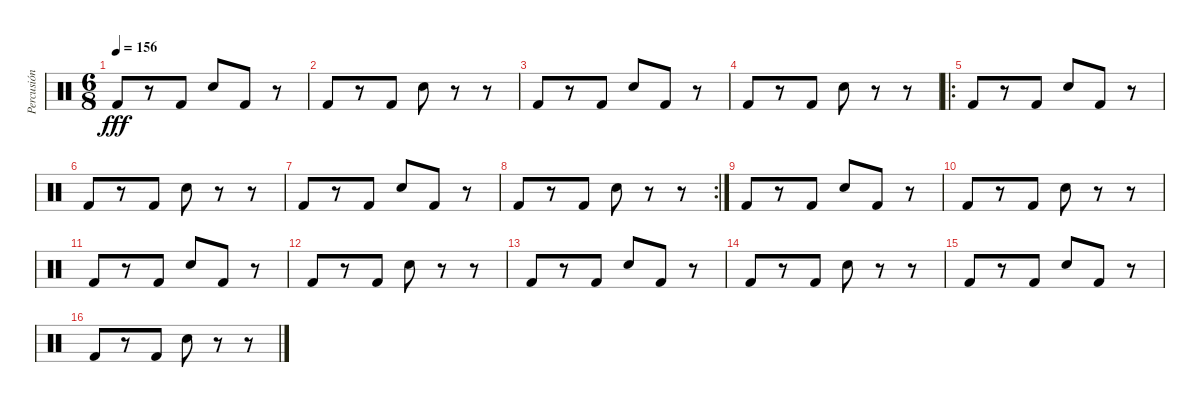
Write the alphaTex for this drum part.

\track ("Percusión" "Percusión") {instrument percussion}
\staff {score}
\articulation defaults
\ts (6 8)
\tempo 156
\clef neutral
\ks c "Kick (hit) 2".8{dy fff}
r.8 "Kick (hit) 2".8 "Snare (hit) 2".8 "Kick (hit) 2".8 r.8 |
"Kick (hit) 2".8 r.8 "Kick (hit) 2".8 "Snare (hit) 2".8 r.8 r.8 |
"Kick (hit) 2".8 r.8 "Kick (hit) 2".8 "Snare (hit) 2".8 "Kick (hit) 2".8 r.8 |
"Kick (hit) 2".8 r.8 "Kick (hit) 2".8 "Snare (hit) 2".8 r.8 r.8 |
\ro "Kick (hit) 2".8
r.8 "Kick (hit) 2".8 "Snare (hit) 2".8 "Kick (hit) 2".8 r.8 |
"Kick (hit) 2".8 r.8 "Kick (hit) 2".8 "Snare (hit) 2".8 r.8 r.8 |
"Kick (hit) 2".8 r.8 "Kick (hit) 2".8 "Snare (hit) 2".8 "Kick (hit) 2".8 r.8 |
\rc 2 "Kick (hit) 2".8
r.8 "Kick (hit) 2".8 "Snare (hit) 2".8 r.8 r.8 |
"Kick (hit) 2".8 r.8 "Kick (hit) 2".8 "Snare (hit) 2".8 "Kick (hit) 2".8 r.8 |
"Kick (hit) 2".8 r.8 "Kick (hit) 2".8 "Snare (hit) 2".8 r.8 r.8 |
"Kick (hit) 2".8 r.8 "Kick (hit) 2".8 "Snare (hit) 2".8 "Kick (hit) 2".8 r.8 |
"Kick (hit) 2".8 r.8 "Kick (hit) 2".8 "Snare (hit) 2".8 r.8 r.8 |
"Kick (hit) 2".8 r.8 "Kick (hit) 2".8 "Snare (hit) 2".8 "Kick (hit) 2".8 r.8 |
"Kick (hit) 2".8 r.8 "Kick (hit) 2".8 "Snare (hit) 2".8 r.8 r.8 |
"Kick (hit) 2".8 r.8 "Kick (hit) 2".8 "Snare (hit) 2".8 "Kick (hit) 2".8 r.8 |
"Kick (hit) 2".8 r.8 "Kick (hit) 2".8 "Snare (hit) 2".8 r.8 r.8
